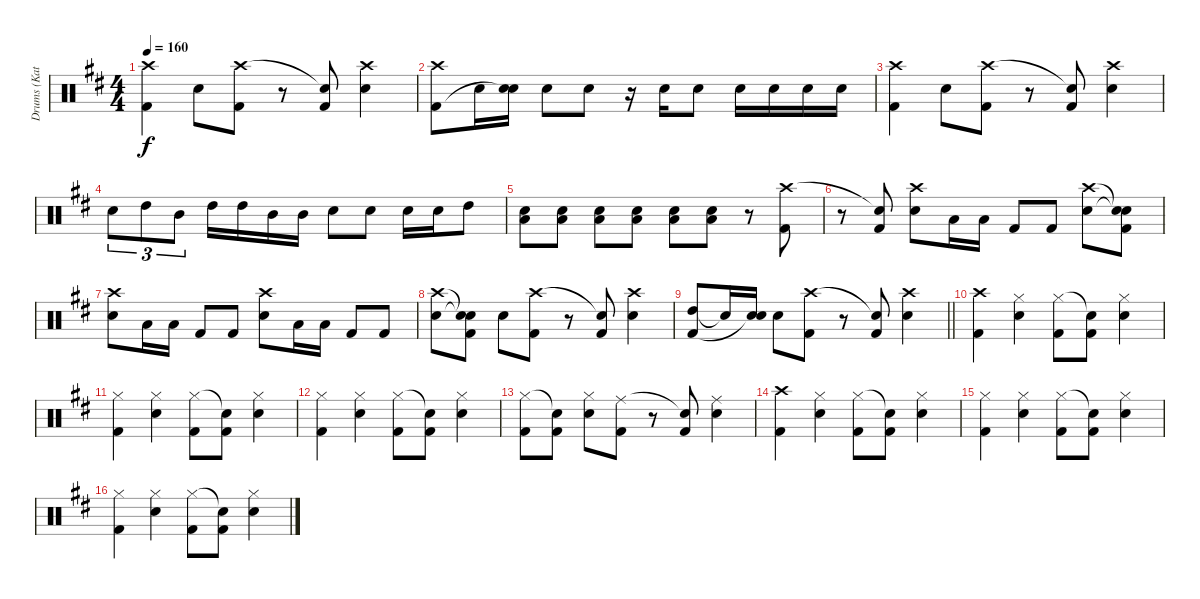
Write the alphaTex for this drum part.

\track ("Drums (Katsuji)" "Drums (Kat") {instrument percussion}
\staff {score}
\articulation defaults
\ts (4 4)
\tempo 160
\clef neutral
\ks d
("Crash high (hit)" "Kick (hit) 2").4{dy f} "Snare (hit) 2".8 ("Crash high (hit)" "Kick (hit) 2").8 r.8 ("Snare (hit)"{t} "Kick (hit) 2").8 ("Crash high (hit)" "Snare (hit) 2").4 |
("Crash high (hit)" "Kick (hit) 2").8 "Snare (hit) 2".16 ("Snare (hit) 2" "Snare (hit)"{t}).16 "Snare (hit) 2".8 "Snare (hit) 2".8 r.16 "Snare (hit) 2".16 "Snare (hit) 2".8 "Snare (hit) 2".16 "Snare (hit) 2".16 "Snare (hit) 2".16 "Snare (hit) 2".16 |
("Crash high (hit)" "Kick (hit) 2").4 "Snare (hit) 2".8 ("Crash high (hit)" "Kick (hit) 2").8 r.8 ("Snare (hit)"{t} "Kick (hit) 2").8 ("Crash high (hit)" "Snare (hit) 2").4 |
"Snare (hit) 2".8{tu (3 2)} "High Tom (hit)".8{tu (3 2)} "Mid Tom (hit)".8{tu (3 2)} "High Tom (hit)".16 "High Tom (hit)".16 "Mid Tom (hit)".16 "Mid Tom (hit)".16 "Snare (hit) 2".8 "Snare (hit) 2".8 "Snare (hit) 2".16 "Snare (hit) 2".16 "High Tom (hit)".8 |
("Snare (hit) 2" "Low Tom (hit)").8 ("Snare (hit) 2" "Low Tom (hit)").8 ("Snare (hit) 2" "Low Tom (hit)").8 ("Snare (hit) 2" "Low Tom (hit)").8 ("Snare (hit) 2" "Low Tom (hit)").8 ("Snare (hit) 2" "Low Tom (hit)").8 r.8 ("Crash high (hit)" "Kick (hit) 2").8 |
r.8 ("Snare (hit)"{t} "Kick (hit) 2").8 ("Crash high (hit)" "Snare (hit) 2").8 "Low Tom (hit)".16 "Low Tom (hit)".16 "Kick (hit) 2".8 "Kick (hit) 2".8 ("Crash high (hit)" "Snare (hit) 2").8 ("Snare (hit)"{t} "Snare (hit)"{t} "Kick (hit) 2").8 |
("Crash high (hit)" "Snare (hit) 2").8 "Low Tom (hit)".16 "Low Tom (hit)".16 "Kick (hit) 2".8 "Kick (hit) 2".8 ("Crash high (hit)" "Snare (hit) 2").8 "Low Tom (hit)".16 "Low Tom (hit)".16 "Kick (hit) 2".8 "Kick (hit) 2".8 |
("Crash high (hit)" "Snare (hit) 2").8 ("Snare (hit)"{t} "Snare (hit)"{t} "Kick (hit) 2").8 "Snare (hit) 2".8 ("Crash high (hit)" "Kick (hit) 2").8 r.8 ("Snare (hit)"{t} "Kick (hit) 2").8 ("Crash high (hit)" "Snare (hit) 2").4 |
\barLineRight lightlight
("High Tom (hit)" "Kick (hit) 2").8 "Snare (hit)"{t}.16 ("Snare (hit) 2" "Snare (hit)"{t}).16 "Snare (hit) 2".8 ("Crash high (hit)" "Kick (hit) 2").8 r.8 ("Snare (hit)"{t} "Kick (hit) 2").8 ("Crash high (hit)" "Snare (hit) 2").4 |
("Crash high (hit)" "Kick (hit) 2").4 ("Hi-Hat (closed)" "Snare (hit) 2").4 ("Hi-Hat (closed)" "Kick (hit) 2").8 ("Snare (hit)"{t} "Kick (hit) 2").8 ("Hi-Hat (closed)" "Snare (hit) 2").4 |
("Hi-Hat (closed)" "Kick (hit) 2").4 ("Hi-Hat (closed)" "Snare (hit) 2").4 ("Hi-Hat (closed)" "Kick (hit) 2").8 ("Snare (hit)"{t} "Kick (hit) 2").8 ("Hi-Hat (closed)" "Snare (hit) 2").4 |
("Hi-Hat (closed)" "Kick (hit) 2").4 ("Hi-Hat (closed)" "Snare (hit) 2").4 ("Hi-Hat (closed)" "Kick (hit) 2").8 ("Snare (hit)"{t} "Kick (hit) 2").8 ("Hi-Hat (closed)" "Snare (hit) 2").4 |
("Hi-Hat (closed)" "Kick (hit) 2").8 ("Snare (hit)"{t} "Kick (hit) 2").8 ("Hi-Hat (closed)" "Snare (hit) 2").8 ("Ride (middle)" "Kick (hit) 2").8 r.8 ("Snare (hit)"{t} "Kick (hit) 2").8 ("Ride (middle)" "Snare (hit) 2").4 |
("Crash high (hit)" "Kick (hit) 2").4 ("Hi-Hat (closed)" "Snare (hit) 2").4 ("Hi-Hat (closed)" "Kick (hit) 2").8 ("Snare (hit)"{t} "Kick (hit) 2").8 ("Hi-Hat (closed)" "Snare (hit) 2").4 |
("Hi-Hat (closed)" "Kick (hit) 2").4 ("Hi-Hat (closed)" "Snare (hit) 2").4 ("Hi-Hat (closed)" "Kick (hit) 2").8 ("Snare (hit)"{t} "Kick (hit) 2").8 ("Hi-Hat (closed)" "Snare (hit) 2").4 |
("Hi-Hat (closed)" "Kick (hit) 2").4 ("Hi-Hat (closed)" "Snare (hit) 2").4 ("Hi-Hat (closed)" "Kick (hit) 2").8 ("Snare (hit)"{t} "Kick (hit) 2").8 ("Hi-Hat (closed)" "Snare (hit) 2").4
